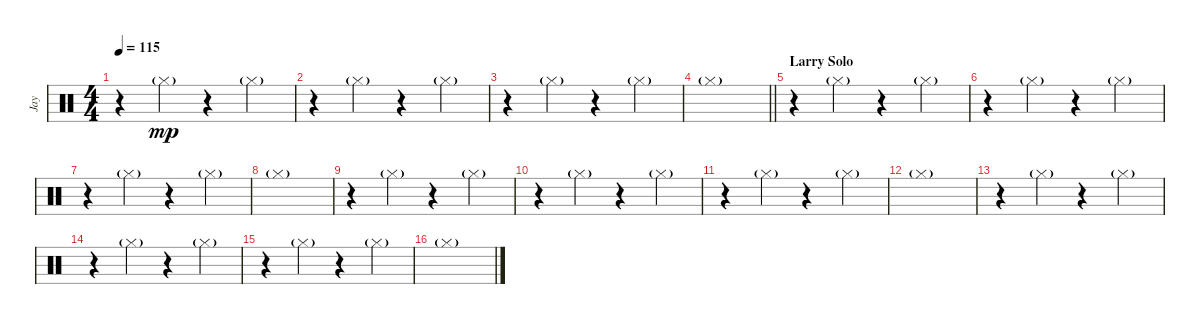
\track ("Jay" "Jay") {instrument percussion}
\staff {score}
\articulation defaults
\ts (4 4)
\tempo 115
\clef neutral
\ks c
r.4{dy mp} "Hi-Hat (closed)"{g}.4 r.4 "Hi-Hat (closed)"{g}.4 |
r.4 "Hi-Hat (closed)"{g}.4 r.4 "Hi-Hat (closed)"{g}.4 |
r.4 "Hi-Hat (closed)"{g}.4 r.4 "Hi-Hat (closed)"{g}.4 |
\barLineRight lightlight "Hi-Hat (closed)"{g}.1
|
\section ("" "Larry Solo")
r.4 "Hi-Hat (closed)"{g}.4 r.4 "Hi-Hat (closed)"{g}.4 |
r.4 "Hi-Hat (closed)"{g}.4 r.4 "Hi-Hat (closed)"{g}.4 |
r.4 "Hi-Hat (closed)"{g}.4 r.4 "Hi-Hat (closed)"{g}.4 |
"Hi-Hat (closed)"{g}.1 |
r.4 "Hi-Hat (closed)"{g}.4 r.4 "Hi-Hat (closed)"{g}.4 |
r.4 "Hi-Hat (closed)"{g}.4 r.4 "Hi-Hat (closed)"{g}.4 |
r.4 "Hi-Hat (closed)"{g}.4 r.4 "Hi-Hat (closed)"{g}.4 |
"Hi-Hat (closed)"{g}.1 |
r.4 "Hi-Hat (closed)"{g}.4 r.4 "Hi-Hat (closed)"{g}.4 |
r.4 "Hi-Hat (closed)"{g}.4 r.4 "Hi-Hat (closed)"{g}.4 |
r.4 "Hi-Hat (closed)"{g}.4 r.4 "Hi-Hat (closed)"{g}.4 |
"Hi-Hat (closed)"{g}.1
